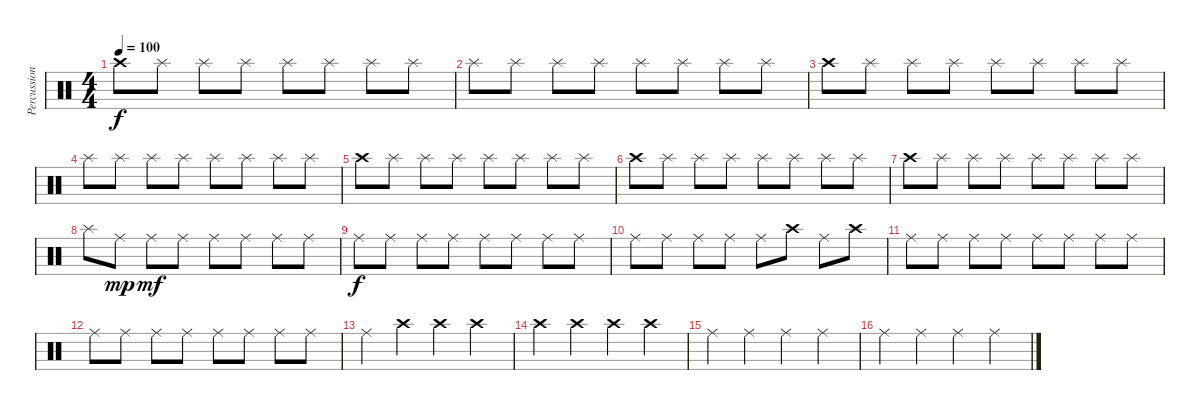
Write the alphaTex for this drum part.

\track ("Percussion2" "Percussion") {instrument percussion}
\staff {score}
\articulation defaults
\ts (4 4)
\tempo 100
\clef neutral
\ks c "Crash high (hit)".8{dy f} "Splash (hit)".8 "Splash (hit)".8 "Splash (hit)".8 "Splash (hit)".8 "Splash (hit)".8 "Splash (hit)".8 "Splash (hit)".8
|
"Splash (hit)".8 "Splash (hit)".8 "Splash (hit)".8 "Splash (hit)".8 "Splash (hit)".8 "Splash (hit)".8 "Splash (hit)".8 "Splash (hit)".8 |
"Crash high (hit)".8 "Splash (hit)".8 "Splash (hit)".8 "Splash (hit)".8 "Splash (hit)".8 "Splash (hit)".8 "Splash (hit)".8 "Splash (hit)".8 |
"Splash (hit)".8 "Splash (hit)".8 "Splash (hit)".8 "Splash (hit)".8 "Splash (hit)".8 "Splash (hit)".8 "Splash (hit)".8 "Splash (hit)".8 |
"Crash high (hit)".8 "Splash (hit)".8 "Splash (hit)".8 "Splash (hit)".8 "Splash (hit)".8 "Splash (hit)".8 "Splash (hit)".8 "Splash (hit)".8 |
"Crash high (hit)".8 "Splash (hit)".8 "Splash (hit)".8 "Splash (hit)".8 "Splash (hit)".8 "Splash (hit)".8 "Splash (hit)".8 "Splash (hit)".8 |
"Crash high (hit)".8 "Splash (hit)".8 "Splash (hit)".8 "Splash (hit)".8 "Splash (hit)".8 "Splash (hit)".8 "Splash (hit)".8 "Splash (hit)".8 |
"Splash (hit)".8 "Ride (middle)".8{dy mp} "Ride (middle)".8{dy mf} "Ride (middle)".8 "Ride (middle)".8 "Ride (middle)".8 "Ride (middle)".8 "Ride (middle)".8 |
"Ride (middle)".8{dy f} "Ride (middle)".8 "Ride (middle)".8 "Ride (middle)".8 "Ride (middle)".8 "Ride (middle)".8 "Ride (middle)".8 "Ride (middle)".8 |
"Ride (middle)".8 "Ride (middle)".8 "Ride (middle)".8 "Ride (middle)".8 "Ride (middle)".8 "Crash high (hit)".8 "Ride (middle)".8 "Crash high (hit)".8 |
"Ride (middle)".8 "Ride (middle)".8 "Ride (middle)".8 "Ride (middle)".8 "Ride (middle)".8 "Ride (middle)".8 "Ride (middle)".8 "Ride (middle)".8 |
"Ride (middle)".8 "Ride (middle)".8 "Ride (middle)".8 "Ride (middle)".8 "Ride (middle)".8 "Ride (middle)".8 "Ride (middle)".8 "Ride (middle)".8 |
"Ride (middle)".4 "Crash high (hit)".4 "Crash high (hit)".4 "Crash high (hit)".4 |
"Crash high (hit)".4 "Crash high (hit)".4 "Crash high (hit)".4 "Crash high (hit)".4 |
"Ride (middle)".4 "Ride (middle)".4 "Ride (middle)".4 "Ride (middle)".4 |
"Ride (middle)".4 "Ride (middle)".4 "Ride (middle)".4 "Ride (middle)".4
